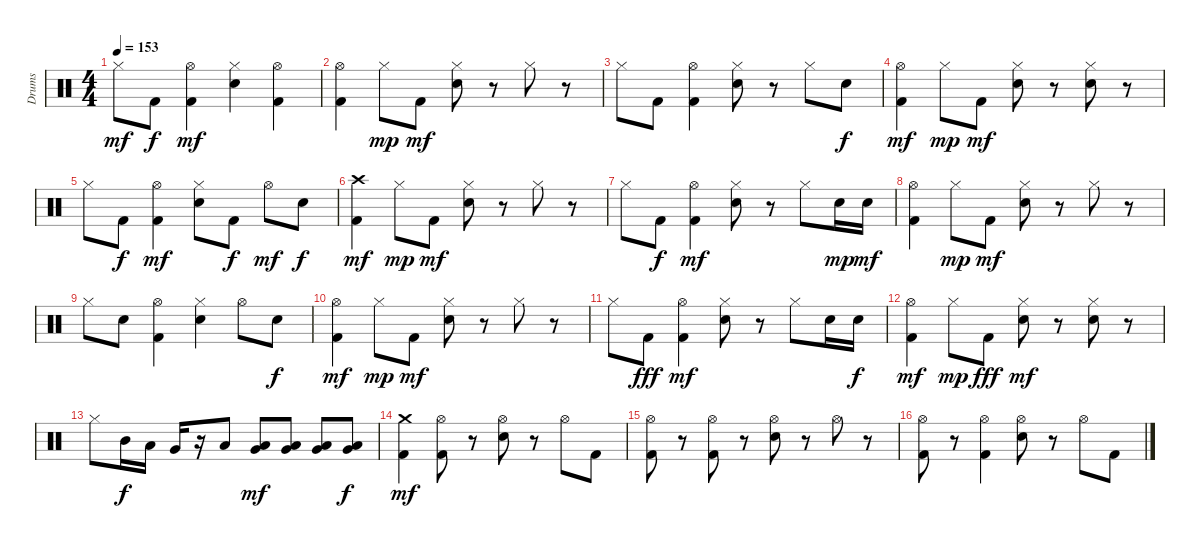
\track ("Drums" "Drums") {instrument percussion}
\staff {score}
\articulation defaults
\ts (4 4)
\tempo 153
\clef neutral
\ks c "Hi-Hat (closed)".8{dy mf} "Kick (hit) 2".8{dy f}
("Kick (hit) 2" "Hi-Hat (open)").4{dy mf} ("Electric Snare (hit)" "Hi-Hat (closed)").4 ("Kick (hit) 2" "Hi-Hat (open)").4 |
("Kick (hit) 2" "Hi-Hat (open)").4 "Hi-Hat (closed)".8{dy mp} "Kick (hit) 2".8{dy mf} ("Electric Snare (hit)" "Hi-Hat (closed)").8 r.8 "Hi-Hat (closed)".8 r.8 |
"Hi-Hat (closed)".8 "Kick (hit) 2".8 ("Kick (hit) 2" "Hi-Hat (open)").4 ("Electric Snare (hit)" "Hi-Hat (closed)").8 r.8 "Hi-Hat (closed)".8 "Electric Snare (hit)".8{dy f} |
("Kick (hit) 2" "Hi-Hat (open)").4{dy mf} "Hi-Hat (closed)".8{dy mp} "Kick (hit) 2".8{dy mf} ("Electric Snare (hit)" "Hi-Hat (closed)").8 r.8 ("Electric Snare (hit)" "Hi-Hat (closed)").8 r.8 |
"Hi-Hat (closed)".8 "Kick (hit) 2".8{dy f} ("Kick (hit) 2" "Hi-Hat (open)").4{dy mf} ("Electric Snare (hit)" "Hi-Hat (closed)").8 "Kick (hit) 2".8{dy f} "Hi-Hat (open)".8{dy mf} "Electric Snare (hit)".8{dy f} |
("Kick (hit) 2" "Crash high (hit)").4{dy mf} "Hi-Hat (closed)".8{dy mp} "Kick (hit) 2".8{dy mf} ("Electric Snare (hit)" "Hi-Hat (closed)").8 r.8 "Hi-Hat (closed)".8 r.8 |
"Hi-Hat (closed)".8 "Kick (hit) 2".8{dy f} ("Kick (hit) 2" "Hi-Hat (open)").4{dy mf} ("Electric Snare (hit)" "Hi-Hat (closed)").8 r.8 "Hi-Hat (closed)".8 "Electric Snare (hit)".16{dy mp} "Electric Snare (hit)".16{dy mf} |
("Kick (hit) 2" "Hi-Hat (open)").4 "Hi-Hat (closed)".8{dy mp} "Kick (hit) 2".8{dy mf} ("Electric Snare (hit)" "Hi-Hat (closed)").8 r.8 "Hi-Hat (closed)".8 r.8 |
"Hi-Hat (closed)".8 "Electric Snare (hit)".8 ("Kick (hit) 2" "Hi-Hat (open)").4 ("Electric Snare (hit)" "Hi-Hat (closed)").4 "Hi-Hat (open)".8 "Electric Snare (hit)".8{dy f} |
("Kick (hit) 2" "Hi-Hat (open)").4{dy mf} "Hi-Hat (closed)".8{dy mp} "Kick (hit) 2".8{dy mf} ("Electric Snare (hit)" "Hi-Hat (closed)").8 r.8 "Hi-Hat (closed)".8 r.8 |
"Hi-Hat (closed)".8 "Kick (hit) 2".8{dy fff} ("Kick (hit) 2" "Hi-Hat (open)").4{dy mf} ("Electric Snare (hit)" "Hi-Hat (closed)").8 r.8 "Hi-Hat (closed)".8 "Electric Snare (hit)".16 "Electric Snare (hit)".16{dy f} |
("Kick (hit) 2" "Hi-Hat (open)").4{dy mf} "Hi-Hat (closed)".8{dy mp} "Kick (hit) 2".8{dy fff} ("Electric Snare (hit)" "Hi-Hat (closed)").8{dy mf} r.8 ("Electric Snare (hit)" "Hi-Hat (closed)").8 r.8 |
"Hi-Hat (closed)".8 "Mid Tom (hit)".16{dy f} "Low Tom (hit)".16 "Very Low Tom (hit)".16 r.16 "Low Floor Tom (hit)".8 ("Low Floor Tom (hit)" "Very Low Tom (hit)").8{dy mf} ("Low Floor Tom (hit)" "Very Low Tom (hit)").8 ("Low Floor Tom (hit)" "Very Low Tom (hit)").8 ("Low Floor Tom (hit)" "Very Low Tom (hit)").8{dy f} |
("Kick (hit) 2" "Crash medium (hit)").4{dy mf} ("Kick (hit) 2" "Hi-Hat (open)").8 r.8 ("Electric Snare (hit)" "Hi-Hat (open)").8 r.8 "Hi-Hat (open)".8 "Kick (hit) 2".8 |
("Kick (hit) 2" "Hi-Hat (open)").8 r.8 ("Kick (hit) 2" "Hi-Hat (open)").8 r.8 ("Electric Snare (hit)" "Hi-Hat (open)").8 r.8 "Hi-Hat (open)".8 r.8 |
("Kick (hit) 2" "Hi-Hat (open)").8 r.8 ("Kick (hit) 2" "Hi-Hat (open)").4 ("Electric Snare (hit)" "Hi-Hat (open)").8 r.8 "Hi-Hat (open)".8 "Kick (hit) 2".8
